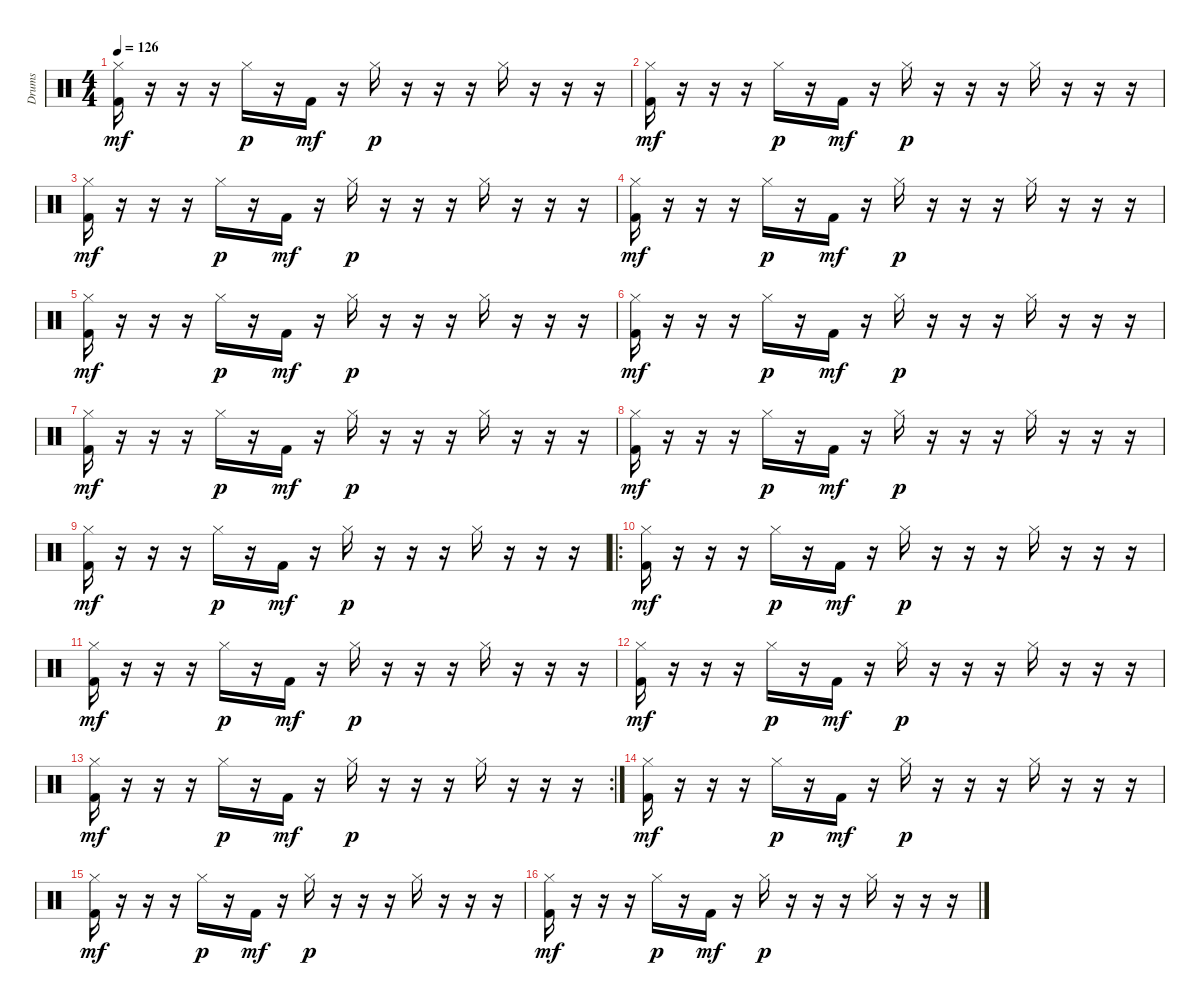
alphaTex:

\track ("Drums" "Drums") {instrument percussion}
\staff {score}
\articulation defaults
\ts (4 4)
\tempo 126
\clef neutral
\ks c
("Hi-Hat (closed)" "Kick (hit) 2").16{dy mf} r.16 r.16 r.16 "Hi-Hat (closed)".16{dy p} r.16 "Kick (hit) 2".16{dy mf} r.16 "Hi-Hat (closed)".16{dy p} r.16 r.16 r.16 "Hi-Hat (closed)".16 r.16 r.16 r.16 |
("Hi-Hat (closed)" "Kick (hit) 2").16{dy mf} r.16 r.16 r.16 "Hi-Hat (closed)".16{dy p} r.16 "Kick (hit) 2".16{dy mf} r.16 "Hi-Hat (closed)".16{dy p} r.16 r.16 r.16 "Hi-Hat (closed)".16 r.16 r.16 r.16 |
("Hi-Hat (closed)" "Kick (hit) 2").16{dy mf} r.16 r.16 r.16 "Hi-Hat (closed)".16{dy p} r.16 "Kick (hit) 2".16{dy mf} r.16 "Hi-Hat (closed)".16{dy p} r.16 r.16 r.16 "Hi-Hat (closed)".16 r.16 r.16 r.16 |
("Hi-Hat (closed)" "Kick (hit) 2").16{dy mf} r.16 r.16 r.16 "Hi-Hat (closed)".16{dy p} r.16 "Kick (hit) 2".16{dy mf} r.16 "Hi-Hat (closed)".16{dy p} r.16 r.16 r.16 "Hi-Hat (closed)".16 r.16 r.16 r.16 |
("Hi-Hat (closed)" "Kick (hit) 2").16{dy mf} r.16 r.16 r.16 "Hi-Hat (closed)".16{dy p} r.16 "Kick (hit) 2".16{dy mf} r.16 "Hi-Hat (closed)".16{dy p} r.16 r.16 r.16 "Hi-Hat (closed)".16 r.16 r.16 r.16 |
("Hi-Hat (closed)" "Kick (hit) 2").16{dy mf} r.16 r.16 r.16 "Hi-Hat (closed)".16{dy p} r.16 "Kick (hit) 2".16{dy mf} r.16 "Hi-Hat (closed)".16{dy p} r.16 r.16 r.16 "Hi-Hat (closed)".16 r.16 r.16 r.16 |
("Hi-Hat (closed)" "Kick (hit) 2").16{dy mf} r.16 r.16 r.16 "Hi-Hat (closed)".16{dy p} r.16 "Kick (hit) 2".16{dy mf} r.16 "Hi-Hat (closed)".16{dy p} r.16 r.16 r.16 "Hi-Hat (closed)".16 r.16 r.16 r.16 |
("Hi-Hat (closed)" "Kick (hit) 2").16{dy mf} r.16 r.16 r.16 "Hi-Hat (closed)".16{dy p} r.16 "Kick (hit) 2".16{dy mf} r.16 "Hi-Hat (closed)".16{dy p} r.16 r.16 r.16 "Hi-Hat (closed)".16 r.16 r.16 r.16 |
("Hi-Hat (closed)" "Kick (hit) 2").16{dy mf} r.16 r.16 r.16 "Hi-Hat (closed)".16{dy p} r.16 "Kick (hit) 2".16{dy mf} r.16 "Hi-Hat (closed)".16{dy p} r.16 r.16 r.16 "Hi-Hat (closed)".16 r.16 r.16 r.16 |
\ro
("Hi-Hat (closed)" "Kick (hit) 2").16{dy mf} r.16 r.16 r.16 "Hi-Hat (closed)".16{dy p} r.16 "Kick (hit) 2".16{dy mf} r.16 "Hi-Hat (closed)".16{dy p} r.16 r.16 r.16 "Hi-Hat (closed)".16 r.16 r.16 r.16 |
("Hi-Hat (closed)" "Kick (hit) 2").16{dy mf} r.16 r.16 r.16 "Hi-Hat (closed)".16{dy p} r.16 "Kick (hit) 2".16{dy mf} r.16 "Hi-Hat (closed)".16{dy p} r.16 r.16 r.16 "Hi-Hat (closed)".16 r.16 r.16 r.16 |
("Hi-Hat (closed)" "Kick (hit) 2").16{dy mf} r.16 r.16 r.16 "Hi-Hat (closed)".16{dy p} r.16 "Kick (hit) 2".16{dy mf} r.16 "Hi-Hat (closed)".16{dy p} r.16 r.16 r.16 "Hi-Hat (closed)".16 r.16 r.16 r.16 |
\rc 2
("Hi-Hat (closed)" "Kick (hit) 2").16{dy mf} r.16 r.16 r.16 "Hi-Hat (closed)".16{dy p} r.16 "Kick (hit) 2".16{dy mf} r.16 "Hi-Hat (closed)".16{dy p} r.16 r.16 r.16 "Hi-Hat (closed)".16 r.16 r.16 r.16 |
("Hi-Hat (closed)" "Kick (hit) 2").16{dy mf} r.16 r.16 r.16 "Hi-Hat (closed)".16{dy p} r.16 "Kick (hit) 2".16{dy mf} r.16 "Hi-Hat (closed)".16{dy p} r.16 r.16 r.16 "Hi-Hat (closed)".16 r.16 r.16 r.16 |
("Hi-Hat (closed)" "Kick (hit) 2").16{dy mf} r.16 r.16 r.16 "Hi-Hat (closed)".16{dy p} r.16 "Kick (hit) 2".16{dy mf} r.16 "Hi-Hat (closed)".16{dy p} r.16 r.16 r.16 "Hi-Hat (closed)".16 r.16 r.16 r.16 |
("Hi-Hat (closed)" "Kick (hit) 2").16{dy mf} r.16 r.16 r.16 "Hi-Hat (closed)".16{dy p} r.16 "Kick (hit) 2".16{dy mf} r.16 "Hi-Hat (closed)".16{dy p} r.16 r.16 r.16 "Hi-Hat (closed)".16 r.16 r.16 r.16
